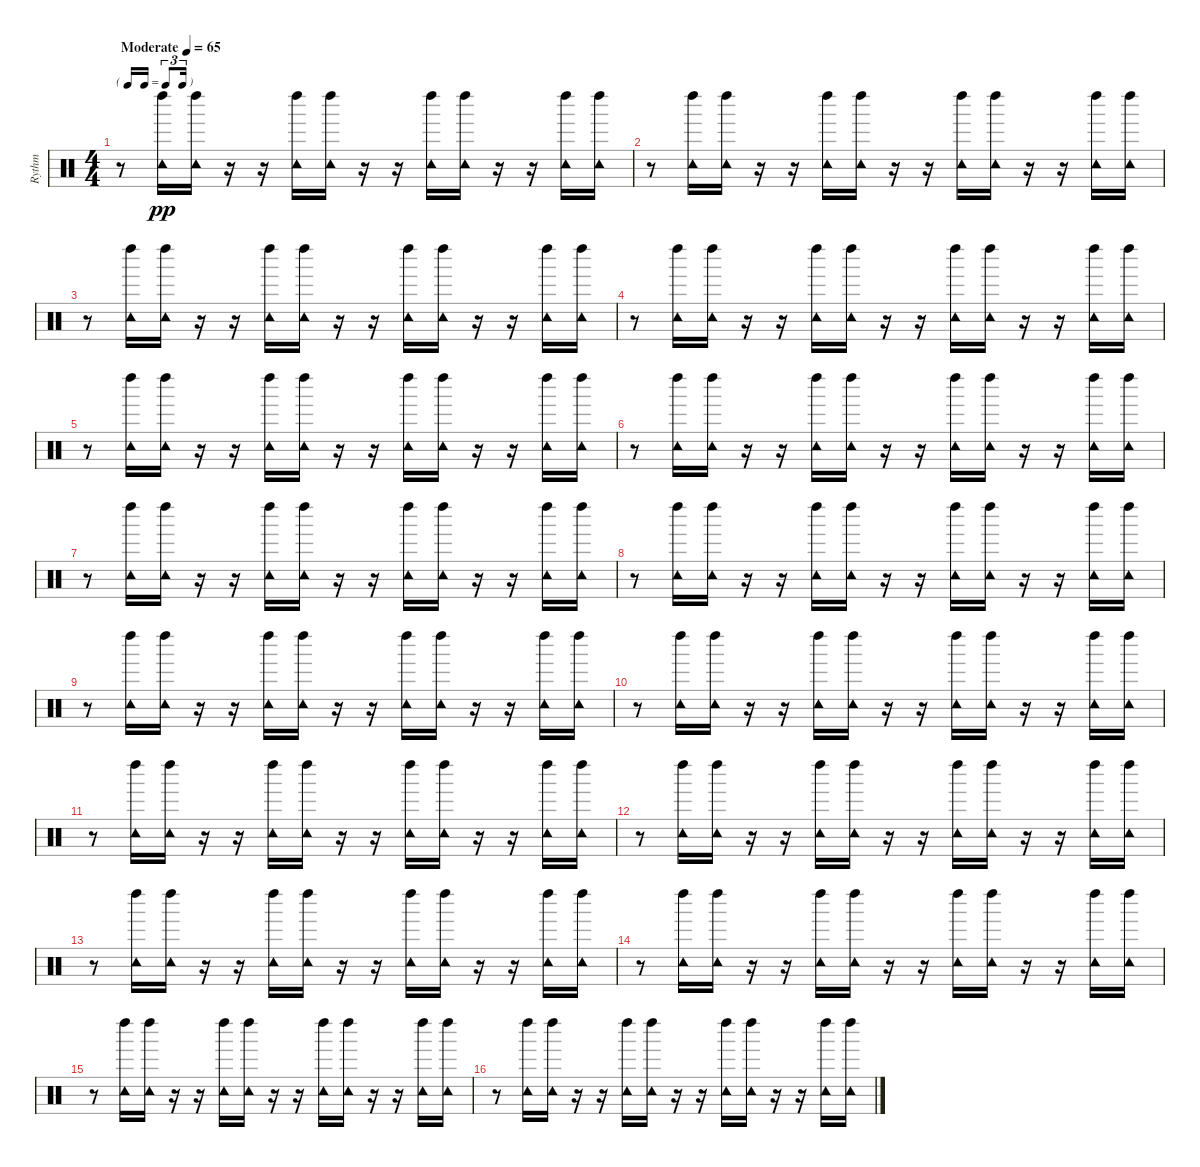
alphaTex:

\track ("Rythm" "Rythm") {instrument percussion}
\staff {score}
\articulation defaults
\ts (4 4)
\tf triplet16th
\tempo (65 "Moderate")
\clef neutral
\ks c
r.8{dy pp} ("Left Maraca (hit)" "Tambourine (hit)").16 ("Left Maraca (hit)" "Tambourine (hit)").16 r.16 r.16 ("Left Maraca (hit)" "Tambourine (hit)").16 ("Left Maraca (hit)" "Tambourine (hit)").16 r.16 r.16 ("Left Maraca (hit)" "Tambourine (hit)").16 ("Left Maraca (hit)" "Tambourine (hit)").16 r.16 r.16 ("Left Maraca (hit)" "Tambourine (hit)").16 ("Left Maraca (hit)" "Tambourine (hit)").16 |
r.8 ("Left Maraca (hit)" "Tambourine (hit)").16 ("Left Maraca (hit)" "Tambourine (hit)").16 r.16 r.16 ("Left Maraca (hit)" "Tambourine (hit)").16 ("Left Maraca (hit)" "Tambourine (hit)").16 r.16 r.16 ("Left Maraca (hit)" "Tambourine (hit)").16 ("Left Maraca (hit)" "Tambourine (hit)").16 r.16 r.16 ("Left Maraca (hit)" "Tambourine (hit)").16 ("Left Maraca (hit)" "Tambourine (hit)").16 |
r.8 ("Left Maraca (hit)" "Tambourine (hit)").16 ("Left Maraca (hit)" "Tambourine (hit)").16 r.16 r.16 ("Left Maraca (hit)" "Tambourine (hit)").16 ("Left Maraca (hit)" "Tambourine (hit)").16 r.16 r.16 ("Left Maraca (hit)" "Tambourine (hit)").16 ("Left Maraca (hit)" "Tambourine (hit)").16 r.16 r.16 ("Left Maraca (hit)" "Tambourine (hit)").16 ("Left Maraca (hit)" "Tambourine (hit)").16 |
r.8 ("Left Maraca (hit)" "Tambourine (hit)").16 ("Left Maraca (hit)" "Tambourine (hit)").16 r.16 r.16 ("Left Maraca (hit)" "Tambourine (hit)").16 ("Left Maraca (hit)" "Tambourine (hit)").16 r.16 r.16 ("Left Maraca (hit)" "Tambourine (hit)").16 ("Left Maraca (hit)" "Tambourine (hit)").16 r.16 r.16 ("Left Maraca (hit)" "Tambourine (hit)").16 ("Left Maraca (hit)" "Tambourine (hit)").16 |
r.8 ("Left Maraca (hit)" "Tambourine (hit)").16 ("Left Maraca (hit)" "Tambourine (hit)").16 r.16 r.16 ("Left Maraca (hit)" "Tambourine (hit)").16 ("Left Maraca (hit)" "Tambourine (hit)").16 r.16 r.16 ("Left Maraca (hit)" "Tambourine (hit)").16 ("Left Maraca (hit)" "Tambourine (hit)").16 r.16 r.16 ("Left Maraca (hit)" "Tambourine (hit)").16 ("Left Maraca (hit)" "Tambourine (hit)").16 |
r.8 ("Left Maraca (hit)" "Tambourine (hit)").16 ("Left Maraca (hit)" "Tambourine (hit)").16 r.16 r.16 ("Left Maraca (hit)" "Tambourine (hit)").16 ("Left Maraca (hit)" "Tambourine (hit)").16 r.16 r.16 ("Left Maraca (hit)" "Tambourine (hit)").16 ("Left Maraca (hit)" "Tambourine (hit)").16 r.16 r.16 ("Left Maraca (hit)" "Tambourine (hit)").16 ("Left Maraca (hit)" "Tambourine (hit)").16 |
r.8 ("Left Maraca (hit)" "Tambourine (hit)").16 ("Left Maraca (hit)" "Tambourine (hit)").16 r.16 r.16 ("Left Maraca (hit)" "Tambourine (hit)").16 ("Left Maraca (hit)" "Tambourine (hit)").16 r.16 r.16 ("Left Maraca (hit)" "Tambourine (hit)").16 ("Left Maraca (hit)" "Tambourine (hit)").16 r.16 r.16 ("Left Maraca (hit)" "Tambourine (hit)").16 ("Left Maraca (hit)" "Tambourine (hit)").16 |
r.8 ("Left Maraca (hit)" "Tambourine (hit)").16 ("Left Maraca (hit)" "Tambourine (hit)").16 r.16 r.16 ("Left Maraca (hit)" "Tambourine (hit)").16 ("Left Maraca (hit)" "Tambourine (hit)").16 r.16 r.16 ("Left Maraca (hit)" "Tambourine (hit)").16 ("Left Maraca (hit)" "Tambourine (hit)").16 r.16 r.16 ("Left Maraca (hit)" "Tambourine (hit)").16 ("Left Maraca (hit)" "Tambourine (hit)").16 |
r.8 ("Left Maraca (hit)" "Tambourine (hit)").16 ("Left Maraca (hit)" "Tambourine (hit)").16 r.16 r.16 ("Left Maraca (hit)" "Tambourine (hit)").16 ("Left Maraca (hit)" "Tambourine (hit)").16 r.16 r.16 ("Left Maraca (hit)" "Tambourine (hit)").16 ("Left Maraca (hit)" "Tambourine (hit)").16 r.16 r.16 ("Left Maraca (hit)" "Tambourine (hit)").16 ("Left Maraca (hit)" "Tambourine (hit)").16 |
r.8 ("Left Maraca (hit)" "Tambourine (hit)").16 ("Left Maraca (hit)" "Tambourine (hit)").16 r.16 r.16 ("Left Maraca (hit)" "Tambourine (hit)").16 ("Left Maraca (hit)" "Tambourine (hit)").16 r.16 r.16 ("Left Maraca (hit)" "Tambourine (hit)").16 ("Left Maraca (hit)" "Tambourine (hit)").16 r.16 r.16 ("Left Maraca (hit)" "Tambourine (hit)").16 ("Left Maraca (hit)" "Tambourine (hit)").16 |
r.8 ("Left Maraca (hit)" "Tambourine (hit)").16 ("Left Maraca (hit)" "Tambourine (hit)").16 r.16 r.16 ("Left Maraca (hit)" "Tambourine (hit)").16 ("Left Maraca (hit)" "Tambourine (hit)").16 r.16 r.16 ("Left Maraca (hit)" "Tambourine (hit)").16 ("Left Maraca (hit)" "Tambourine (hit)").16 r.16 r.16 ("Left Maraca (hit)" "Tambourine (hit)").16 ("Left Maraca (hit)" "Tambourine (hit)").16 |
r.8 ("Left Maraca (hit)" "Tambourine (hit)").16 ("Left Maraca (hit)" "Tambourine (hit)").16 r.16 r.16 ("Left Maraca (hit)" "Tambourine (hit)").16 ("Left Maraca (hit)" "Tambourine (hit)").16 r.16 r.16 ("Left Maraca (hit)" "Tambourine (hit)").16 ("Left Maraca (hit)" "Tambourine (hit)").16 r.16 r.16 ("Left Maraca (hit)" "Tambourine (hit)").16 ("Left Maraca (hit)" "Tambourine (hit)").16 |
r.8 ("Left Maraca (hit)" "Tambourine (hit)").16 ("Left Maraca (hit)" "Tambourine (hit)").16 r.16 r.16 ("Left Maraca (hit)" "Tambourine (hit)").16 ("Left Maraca (hit)" "Tambourine (hit)").16 r.16 r.16 ("Left Maraca (hit)" "Tambourine (hit)").16 ("Left Maraca (hit)" "Tambourine (hit)").16 r.16 r.16 ("Left Maraca (hit)" "Tambourine (hit)").16 ("Left Maraca (hit)" "Tambourine (hit)").16 |
r.8 ("Left Maraca (hit)" "Tambourine (hit)").16 ("Left Maraca (hit)" "Tambourine (hit)").16 r.16 r.16 ("Left Maraca (hit)" "Tambourine (hit)").16 ("Left Maraca (hit)" "Tambourine (hit)").16 r.16 r.16 ("Left Maraca (hit)" "Tambourine (hit)").16 ("Left Maraca (hit)" "Tambourine (hit)").16 r.16 r.16 ("Left Maraca (hit)" "Tambourine (hit)").16 ("Left Maraca (hit)" "Tambourine (hit)").16 |
r.8 ("Left Maraca (hit)" "Tambourine (hit)").16 ("Left Maraca (hit)" "Tambourine (hit)").16 r.16 r.16 ("Left Maraca (hit)" "Tambourine (hit)").16 ("Left Maraca (hit)" "Tambourine (hit)").16 r.16 r.16 ("Left Maraca (hit)" "Tambourine (hit)").16 ("Left Maraca (hit)" "Tambourine (hit)").16 r.16 r.16 ("Left Maraca (hit)" "Tambourine (hit)").16 ("Left Maraca (hit)" "Tambourine (hit)").16 |
r.8 ("Left Maraca (hit)" "Tambourine (hit)").16 ("Left Maraca (hit)" "Tambourine (hit)").16 r.16 r.16 ("Left Maraca (hit)" "Tambourine (hit)").16 ("Left Maraca (hit)" "Tambourine (hit)").16 r.16 r.16 ("Left Maraca (hit)" "Tambourine (hit)").16 ("Left Maraca (hit)" "Tambourine (hit)").16 r.16 r.16 ("Left Maraca (hit)" "Tambourine (hit)").16 ("Left Maraca (hit)" "Tambourine (hit)").16
